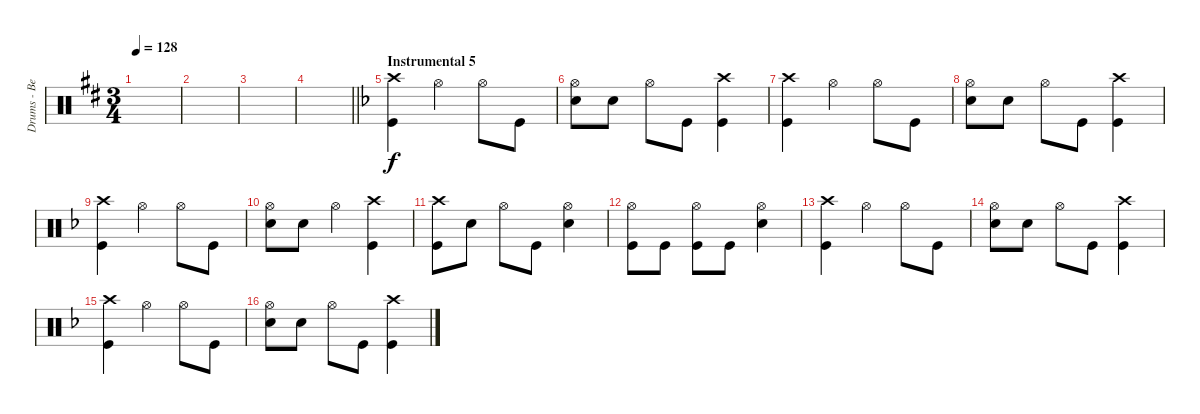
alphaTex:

\track ("Drums - Ben Johnston" "Drums - Be") {instrument percussion}
\staff {score}
\articulation defaults
\ts (3 4)
\tempo 128
\clef neutral
\ks d
|
|
|
\barLineRight lightlight
|
\section ("" "Instrumental 5")
\ks dminor
("Crash high (hit)" "Kick (hit)").4 "Hi-Hat (open)".4 "Hi-Hat (open)".8 "Kick (hit)".8 |
("Hi-Hat (open)" "Snare (hit) 2").8 "Snare (hit) 2".8 "Hi-Hat (open)".8 "Kick (hit)".8 ("Crash high (hit)" "Kick (hit)").4 |
("Crash high (hit)" "Kick (hit)").4 "Hi-Hat (open)".4 "Hi-Hat (open)".8 "Kick (hit)".8 |
("Hi-Hat (open)" "Snare (hit) 2").8 "Snare (hit) 2".8 "Hi-Hat (open)".8 "Kick (hit)".8 ("Crash high (hit)" "Kick (hit)").4 |
("Crash high (hit)" "Kick (hit)").4 "Hi-Hat (open)".4 "Hi-Hat (open)".8 "Kick (hit)".8 |
("Hi-Hat (open)" "Snare (hit) 2").8 "Snare (hit) 2".8 "Hi-Hat (open)".4 ("Crash high (hit)" "Kick (hit)").4 |
("Crash high (hit)" "Kick (hit)").8 "Snare (hit) 2".8 "Hi-Hat (open)".8 "Kick (hit)".8 ("Hi-Hat (open)" "Snare (hit) 2").4 |
("Hi-Hat (open)" "Kick (hit)").8 "Kick (hit)".8 ("Hi-Hat (open)" "Kick (hit)").8 "Kick (hit)".8 ("Hi-Hat (open)" "Snare (hit) 2").4 |
("Crash high (hit)" "Kick (hit)").4 "Hi-Hat (open)".4 "Hi-Hat (open)".8 "Kick (hit)".8 |
("Hi-Hat (open)" "Snare (hit) 2").8 "Snare (hit) 2".8 "Hi-Hat (open)".8 "Kick (hit)".8 ("Crash high (hit)" "Kick (hit)").4 |
("Crash high (hit)" "Kick (hit)").4 "Hi-Hat (open)".4 "Hi-Hat (open)".8 "Kick (hit)".8 |
("Hi-Hat (open)" "Snare (hit) 2").8 "Snare (hit) 2".8 "Hi-Hat (open)".8 "Kick (hit)".8 ("Crash high (hit)" "Kick (hit)").4
